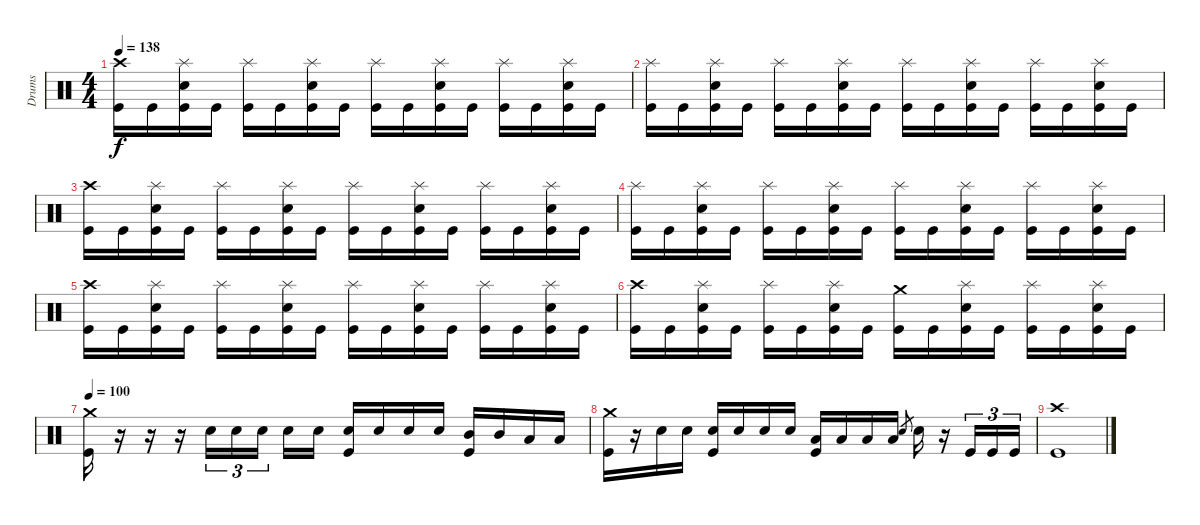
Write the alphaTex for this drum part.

\track ("Drums" "Drums") {instrument percussion}
\staff {score}
\articulation defaults
\ts (4 4)
\tempo 138
\clef neutral
\ks c
("Crash high (hit)" "Kick (hit)").16{dy f} "Kick (hit)".16 ("Splash (hit)" "Electric Snare (hit)" "Kick (hit)").16 "Kick (hit)".16 ("Splash (hit)" "Kick (hit)").16 "Kick (hit)".16 ("Splash (hit)" "Electric Snare (hit)" "Kick (hit)").16 "Kick (hit)".16 ("Splash (hit)" "Kick (hit)").16 "Kick (hit)".16 ("Splash (hit)" "Electric Snare (hit)" "Kick (hit)").16 "Kick (hit)".16 ("Splash (hit)" "Kick (hit)").16 "Kick (hit)".16 ("Splash (hit)" "Electric Snare (hit)" "Kick (hit)").16 "Kick (hit)".16 |
("Splash (hit)" "Kick (hit)").16 "Kick (hit)".16 ("Splash (hit)" "Electric Snare (hit)" "Kick (hit)").16 "Kick (hit)".16 ("Splash (hit)" "Kick (hit)").16 "Kick (hit)".16 ("Splash (hit)" "Electric Snare (hit)" "Kick (hit)").16 "Kick (hit)".16 ("Splash (hit)" "Kick (hit)").16 "Kick (hit)".16 ("Splash (hit)" "Electric Snare (hit)" "Kick (hit)").16 "Kick (hit)".16 ("Splash (hit)" "Kick (hit)").16 "Kick (hit)".16 ("Splash (hit)" "Electric Snare (hit)" "Kick (hit)").16 "Kick (hit)".16 |
("Crash high (hit)" "Kick (hit)").16 "Kick (hit)".16 ("Splash (hit)" "Electric Snare (hit)" "Kick (hit)").16 "Kick (hit)".16 ("Splash (hit)" "Kick (hit)").16 "Kick (hit)".16 ("Splash (hit)" "Electric Snare (hit)" "Kick (hit)").16 "Kick (hit)".16 ("Splash (hit)" "Kick (hit)").16 "Kick (hit)".16 ("Splash (hit)" "Electric Snare (hit)" "Kick (hit)").16 "Kick (hit)".16 ("Splash (hit)" "Kick (hit)").16 "Kick (hit)".16 ("Splash (hit)" "Electric Snare (hit)" "Kick (hit)").16 "Kick (hit)".16 |
("Splash (hit)" "Kick (hit)").16 "Kick (hit)".16 ("Splash (hit)" "Electric Snare (hit)" "Kick (hit)").16 "Kick (hit)".16 ("Splash (hit)" "Kick (hit)").16 "Kick (hit)".16 ("Splash (hit)" "Electric Snare (hit)" "Kick (hit)").16 "Kick (hit)".16 ("Splash (hit)" "Kick (hit)").16 "Kick (hit)".16 ("Splash (hit)" "Electric Snare (hit)" "Kick (hit)").16 "Kick (hit)".16 ("Splash (hit)" "Kick (hit)").16 "Kick (hit)".16 ("Splash (hit)" "Electric Snare (hit)" "Kick (hit)").16 "Kick (hit)".16 |
("Crash high (hit)" "Kick (hit)").16 "Kick (hit)".16 ("Splash (hit)" "Electric Snare (hit)" "Kick (hit)").16 "Kick (hit)".16 ("Splash (hit)" "Kick (hit)").16 "Kick (hit)".16 ("Splash (hit)" "Electric Snare (hit)" "Kick (hit)").16 "Kick (hit)".16 ("Splash (hit)" "Kick (hit)").16 "Kick (hit)".16 ("Splash (hit)" "Electric Snare (hit)" "Kick (hit)").16 "Kick (hit)".16 ("Splash (hit)" "Kick (hit)").16 "Kick (hit)".16 ("Splash (hit)" "Electric Snare (hit)" "Kick (hit)").16 "Kick (hit)".16 |
("Crash high (hit)" "Kick (hit)").16 "Kick (hit)".16 ("Splash (hit)" "Electric Snare (hit)" "Kick (hit)").16 "Kick (hit)".16 ("Splash (hit)" "Kick (hit)").16 "Kick (hit)".16 ("Splash (hit)" "Electric Snare (hit)" "Kick (hit)").16 "Kick (hit)".16 ("Crash medium (hit)" "Kick (hit)").16 "Kick (hit)".16 ("Splash (hit)" "Electric Snare (hit)" "Kick (hit)").16 "Kick (hit)".16 ("Splash (hit)" "Kick (hit)").16 "Kick (hit)".16 ("Splash (hit)" "Electric Snare (hit)" "Kick (hit)").16 "Kick (hit)".16 |
\tempo 100
("Crash medium (hit)" "Kick (hit)").16 r.16 r.16 r.16 "Electric Snare (hit)".16{tu (3 2)} "Electric Snare (hit)".16{tu (3 2)} "Electric Snare (hit)".16{tu (3 2) beam splitsecondary} "Electric Snare (hit)".16 "Electric Snare (hit)".16 ("Electric Snare (hit)" "Kick (hit)").16 "Electric Snare (hit)".16 "Electric Snare (hit)".16 "Electric Snare (hit)".16 ("Mid Tom (hit)" "Kick (hit)").16 "Mid Tom (hit)".16 "Low Tom (hit)".16 "Low Tom (hit)".16 |
("Crash medium (hit)" "Kick (hit)").16 r.16 "Electric Snare (hit)".16 "Electric Snare (hit)".16 ("Electric Snare (hit)" "Kick (hit)").16 "Electric Snare (hit)".16 "Electric Snare (hit)".16 "Electric Snare (hit)".16 ("Low Tom (hit)" "Kick (hit)").16 "Low Tom (hit)".16 "Low Tom (hit)".16 "Low Tom (hit)".16 "Electric Snare (hit)".8{gr} "Electric Snare (hit)".16 r.16 "Kick (hit)".16{tu (3 2)} "Kick (hit)".16{tu (3 2)} "Kick (hit)".16{tu (3 2)} |
("Crash high (hit)" "Kick (hit)").1
